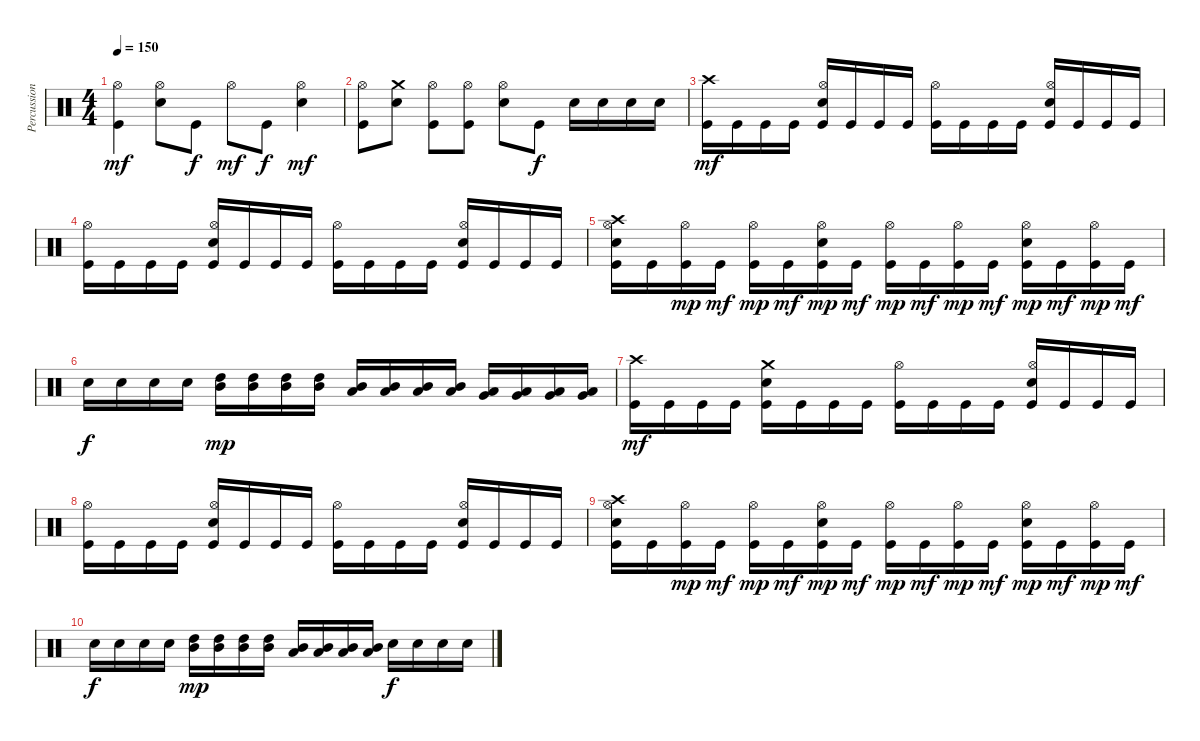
\track ("Percussions" "Percussion") {instrument percussion}
\staff {score}
\articulation defaults
\ts (4 4)
\tempo 150
\clef neutral
\ks c
("Kick (hit)" "Hi-Hat (open)").4{dy mf} ("Electric Snare (hit)" "Hi-Hat (open)").8 "Kick (hit)".8{dy f} "Hi-Hat (open)".8{dy mf} "Kick (hit)".8{dy f} ("Electric Snare (hit)" "Hi-Hat (open)").4{dy mf} |
("Kick (hit)" "Hi-Hat (open)").8 ("Electric Snare (hit)" "Crash medium (hit)").8 ("Kick (hit)" "Hi-Hat (open)").8 ("Kick (hit)" "Hi-Hat (open)").8 ("Electric Snare (hit)" "Hi-Hat (open)").8 "Kick (hit)".8{dy f} "Electric Snare (hit)".16 "Electric Snare (hit)".16 "Electric Snare (hit)".16 "Electric Snare (hit)".16 |
("Kick (hit)" "Crash high (hit)").16{dy mf} "Kick (hit)".16 "Kick (hit)".16 "Kick (hit)".16 ("Kick (hit)" "Electric Snare (hit)" "Hi-Hat (open)").16 "Kick (hit)".16 "Kick (hit)".16 "Kick (hit)".16 ("Kick (hit)" "Hi-Hat (open)").16 "Kick (hit)".16 "Kick (hit)".16 "Kick (hit)".16 ("Kick (hit)" "Electric Snare (hit)" "Hi-Hat (open)").16 "Kick (hit)".16 "Kick (hit)".16 "Kick (hit)".16 |
("Kick (hit)" "Hi-Hat (open)").16 "Kick (hit)".16 "Kick (hit)".16 "Kick (hit)".16 ("Kick (hit)" "Electric Snare (hit)" "Hi-Hat (open)").16 "Kick (hit)".16 "Kick (hit)".16 "Kick (hit)".16 ("Kick (hit)" "Hi-Hat (open)").16 "Kick (hit)".16 "Kick (hit)".16 "Kick (hit)".16 ("Kick (hit)" "Electric Snare (hit)" "Hi-Hat (open)").16 "Kick (hit)".16 "Kick (hit)".16 "Kick (hit)".16 |
("Kick (hit)" "Electric Snare (hit)" "Hi-Hat (open)" "Crash high (hit)").16 "Kick (hit)".16 ("Kick (hit)" "Hi-Hat (open)").16{dy mp} "Kick (hit)".16{dy mf} ("Kick (hit)" "Hi-Hat (open)").16{dy mp} "Kick (hit)".16{dy mf} ("Kick (hit)" "Electric Snare (hit)" "Hi-Hat (open)").16{dy mp} "Kick (hit)".16{dy mf} ("Kick (hit)" "Hi-Hat (open)").16{dy mp} "Kick (hit)".16{dy mf} ("Kick (hit)" "Hi-Hat (open)").16{dy mp} "Kick (hit)".16{dy mf} ("Kick (hit)" "Electric Snare (hit)" "Hi-Hat (open)").16{dy mp} "Kick (hit)".16{dy mf} ("Kick (hit)" "Hi-Hat (open)").16{dy mp} "Kick (hit)".16{dy mf} |
"Electric Snare (hit)".16{dy f} "Electric Snare (hit)".16 "Electric Snare (hit)".16 "Electric Snare (hit)".16 ("High Tom (hit)" "Mid Tom (hit)").16{dy mp} ("High Tom (hit)" "Mid Tom (hit)").16 ("High Tom (hit)" "Mid Tom (hit)").16 ("High Tom (hit)" "Mid Tom (hit)").16 ("Mid Tom (hit)" "Low Tom (hit)").16 ("Mid Tom (hit)" "Low Tom (hit)").16 ("Mid Tom (hit)" "Low Tom (hit)").16 ("Mid Tom (hit)" "Low Tom (hit)").16 ("Low Tom (hit)" "Very Low Tom (hit)").16 ("Low Tom (hit)" "Very Low Tom (hit)").16 ("Low Tom (hit)" "Very Low Tom (hit)").16 ("Low Tom (hit)" "Very Low Tom (hit)").16 |
("Kick (hit)" "Crash high (hit)").16{dy mf} "Kick (hit)".16 "Kick (hit)".16 "Kick (hit)".16 ("Kick (hit)" "Electric Snare (hit)" "Crash medium (hit)").16 "Kick (hit)".16 "Kick (hit)".16 "Kick (hit)".16 ("Kick (hit)" "Hi-Hat (open)").16 "Kick (hit)".16 "Kick (hit)".16 "Kick (hit)".16 ("Kick (hit)" "Electric Snare (hit)" "Hi-Hat (open)").16 "Kick (hit)".16 "Kick (hit)".16 "Kick (hit)".16 |
("Kick (hit)" "Hi-Hat (open)").16 "Kick (hit)".16 "Kick (hit)".16 "Kick (hit)".16 ("Kick (hit)" "Electric Snare (hit)" "Hi-Hat (open)").16 "Kick (hit)".16 "Kick (hit)".16 "Kick (hit)".16 ("Kick (hit)" "Hi-Hat (open)").16 "Kick (hit)".16 "Kick (hit)".16 "Kick (hit)".16 ("Kick (hit)" "Electric Snare (hit)" "Hi-Hat (open)").16 "Kick (hit)".16 "Kick (hit)".16 "Kick (hit)".16 |
("Kick (hit)" "Electric Snare (hit)" "Hi-Hat (open)" "Crash high (hit)").16 "Kick (hit)".16 ("Kick (hit)" "Hi-Hat (open)").16{dy mp} "Kick (hit)".16{dy mf} ("Kick (hit)" "Hi-Hat (open)").16{dy mp} "Kick (hit)".16{dy mf} ("Kick (hit)" "Electric Snare (hit)" "Hi-Hat (open)").16{dy mp} "Kick (hit)".16{dy mf} ("Kick (hit)" "Hi-Hat (open)").16{dy mp} "Kick (hit)".16{dy mf} ("Kick (hit)" "Hi-Hat (open)").16{dy mp} "Kick (hit)".16{dy mf} ("Kick (hit)" "Electric Snare (hit)" "Hi-Hat (open)").16{dy mp} "Kick (hit)".16{dy mf} ("Kick (hit)" "Hi-Hat (open)").16{dy mp} "Kick (hit)".16{dy mf} |
"Electric Snare (hit)".16{dy f} "Electric Snare (hit)".16 "Electric Snare (hit)".16 "Electric Snare (hit)".16 ("High Tom (hit)" "Mid Tom (hit)").16{dy mp} ("High Tom (hit)" "Mid Tom (hit)").16 ("High Tom (hit)" "Mid Tom (hit)").16 ("High Tom (hit)" "Mid Tom (hit)").16 ("Mid Tom (hit)" "Low Tom (hit)").16 ("Mid Tom (hit)" "Low Tom (hit)").16 ("Mid Tom (hit)" "Low Tom (hit)").16 ("Mid Tom (hit)" "Low Tom (hit)").16 "Electric Snare (hit)".16{dy f} "Electric Snare (hit)".16 "Electric Snare (hit)".16 "Electric Snare (hit)".16
